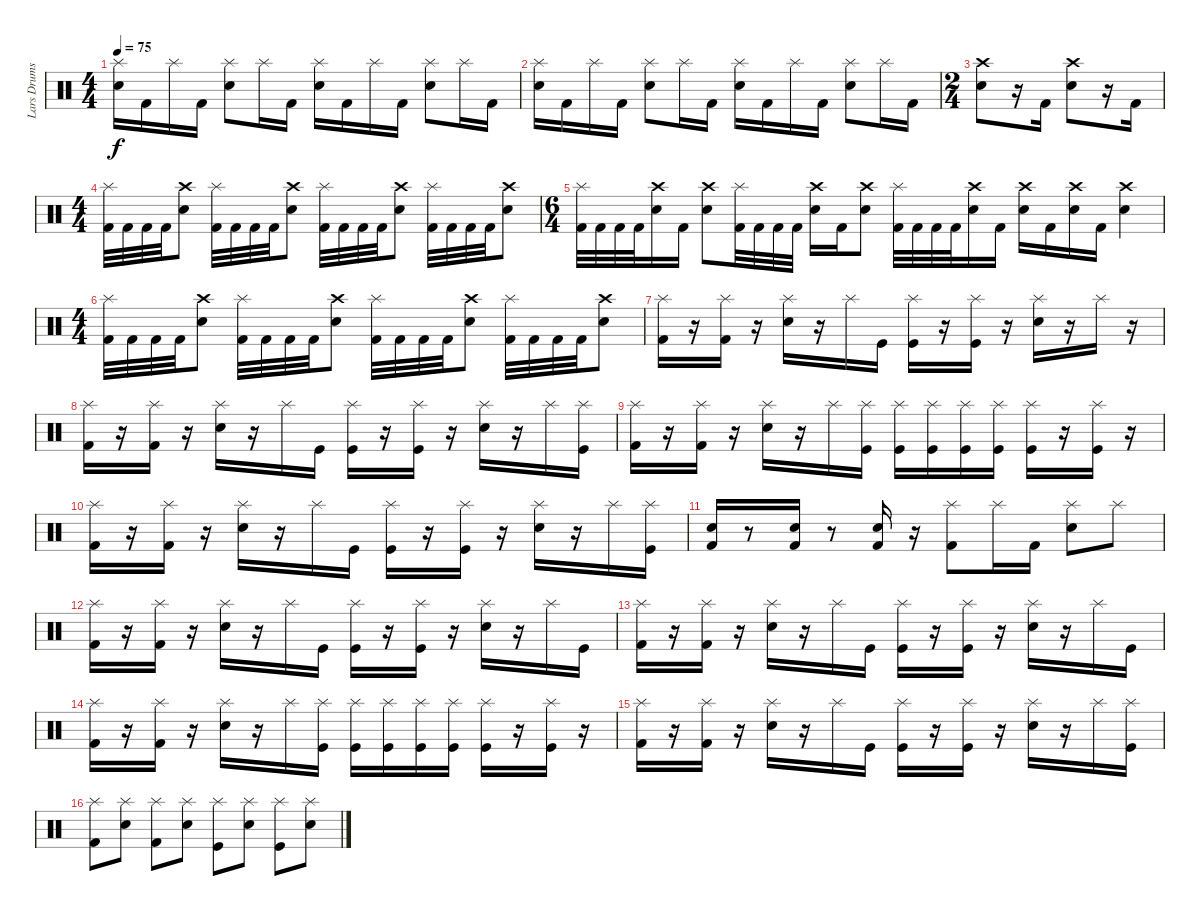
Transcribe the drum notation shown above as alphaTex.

\track ("Lars Drums" "Lars Drums") {instrument percussion}
\staff {score}
\articulation defaults
\ts (4 4)
\tempo 75
\clef neutral
\ks c
("Splash (hit)" "Snare (hit) 2").16{dy f} "Kick (hit) 2".16 "Splash (hit)".16 "Kick (hit) 2".16 ("Splash (hit)" "Snare (hit) 2").8 "Splash (hit)".16 "Kick (hit) 2".16 ("Splash (hit)" "Snare (hit) 2").16 "Kick (hit) 2".16 "Splash (hit)".16 "Kick (hit) 2".16 ("Splash (hit)" "Snare (hit) 2").8 "Splash (hit)".16 "Kick (hit) 2".16 |
("Splash (hit)" "Snare (hit) 2").16 "Kick (hit) 2".16 "Splash (hit)".16 "Kick (hit) 2".16 ("Splash (hit)" "Snare (hit) 2").8 "Splash (hit)".16 "Kick (hit) 2".16 ("Splash (hit)" "Snare (hit) 2").16 "Kick (hit) 2".16 "Splash (hit)".16 "Kick (hit) 2".16 ("Splash (hit)" "Snare (hit) 2").8 "Splash (hit)".16 "Kick (hit) 2".16 |
\ts (2 4)
("Crash high (hit)" "Snare (hit) 2").8 r.16 "Kick (hit) 2".16 ("Crash high (hit)" "Snare (hit) 2").8 r.16 "Kick (hit) 2".16 |
\ts (4 4)
("Splash (hit)" "Kick (hit) 2").32 "Kick (hit) 2".32 "Kick (hit) 2".32 "Kick (hit) 2".32 ("Crash high (hit)" "Snare (hit) 2").8 ("Splash (hit)" "Kick (hit) 2").32 "Kick (hit) 2".32 "Kick (hit) 2".32 "Kick (hit) 2".32 ("Crash high (hit)" "Snare (hit) 2").8 ("Splash (hit)" "Kick (hit) 2").32 "Kick (hit) 2".32 "Kick (hit) 2".32 "Kick (hit) 2".32 ("Crash high (hit)" "Snare (hit) 2").8 ("Splash (hit)" "Kick (hit) 2").32 "Kick (hit) 2".32 "Kick (hit) 2".32 "Kick (hit) 2".32 ("Crash high (hit)" "Snare (hit) 2").8 |
\ts (6 4)
("Splash (hit)" "Kick (hit) 2").32 "Kick (hit) 2".32 "Kick (hit) 2".32 "Kick (hit) 2".32 ("Crash high (hit)" "Snare (hit) 2").16 "Kick (hit) 2".16 ("Crash high (hit)" "Snare (hit) 2").8 ("Splash (hit)" "Kick (hit) 2").32 "Kick (hit) 2".32 "Kick (hit) 2".32 "Kick (hit) 2".32 ("Crash high (hit)" "Snare (hit) 2").16 "Kick (hit) 2".16 ("Crash high (hit)" "Snare (hit) 2").8 ("Splash (hit)" "Kick (hit) 2").32 "Kick (hit) 2".32 "Kick (hit) 2".32 "Kick (hit) 2".32 ("Crash high (hit)" "Snare (hit) 2").16 "Kick (hit) 2".16 ("Crash high (hit)" "Snare (hit) 2").16 "Kick (hit) 2".16 ("Crash high (hit)" "Snare (hit) 2").16 "Kick (hit) 2".16 ("Crash high (hit)" "Snare (hit) 2").4 |
\ts (4 4)
("Splash (hit)" "Kick (hit) 2").32 "Kick (hit) 2".32 "Kick (hit) 2".32 "Kick (hit) 2".32 ("Crash high (hit)" "Snare (hit) 2").8 ("Splash (hit)" "Kick (hit) 2").32 "Kick (hit) 2".32 "Kick (hit) 2".32 "Kick (hit) 2".32 ("Crash high (hit)" "Snare (hit) 2").8 ("Splash (hit)" "Kick (hit) 2").32 "Kick (hit) 2".32 "Kick (hit) 2".32 "Kick (hit) 2".32 ("Crash high (hit)" "Snare (hit) 2").8 ("Splash (hit)" "Kick (hit) 2").32 "Kick (hit) 2".32 "Kick (hit) 2".32 "Kick (hit) 2".32 ("Crash high (hit)" "Snare (hit) 2").8 |
("Splash (hit)" "Kick (hit) 2").16 r.16 ("Splash (hit)" "Kick (hit) 2").16 r.16 ("Splash (hit)" "Snare (hit) 2").16 r.16 "Splash (hit)".16 "Kick (hit)".16 ("Splash (hit)" "Kick (hit)").16 r.16 ("Splash (hit)" "Kick (hit)").16 r.16 ("Splash (hit)" "Snare (hit) 2").16 r.16 "Splash (hit)".16 r.16 |
("Splash (hit)" "Kick (hit) 2").16 r.16 ("Splash (hit)" "Kick (hit) 2").16 r.16 ("Splash (hit)" "Snare (hit) 2").16 r.16 "Splash (hit)".16 "Kick (hit)".16 ("Splash (hit)" "Kick (hit)").16 r.16 ("Splash (hit)" "Kick (hit)").16 r.16 ("Splash (hit)" "Snare (hit) 2").16 r.16 "Splash (hit)".16 ("Splash (hit)" "Kick (hit)").16 |
("Splash (hit)" "Kick (hit) 2").16 r.16 ("Splash (hit)" "Kick (hit) 2").16 r.16 ("Splash (hit)" "Snare (hit) 2").16 r.16 "Splash (hit)".16 ("Splash (hit)" "Kick (hit)").16 ("Splash (hit)" "Kick (hit)").16 ("Splash (hit)" "Kick (hit)").16 ("Splash (hit)" "Kick (hit)").16 ("Splash (hit)" "Kick (hit)").16 ("Splash (hit)" "Kick (hit)").16 r.16 ("Splash (hit)" "Kick (hit)").16 r.16 |
("Splash (hit)" "Kick (hit) 2").16 r.16 ("Splash (hit)" "Kick (hit) 2").16 r.16 ("Splash (hit)" "Snare (hit) 2").16 r.16 "Splash (hit)".16 "Kick (hit)".16 ("Splash (hit)" "Kick (hit)").16 r.16 ("Splash (hit)" "Kick (hit)").16 r.16 ("Splash (hit)" "Snare (hit) 2").16 r.16 "Splash (hit)".16 ("Splash (hit)" "Kick (hit)").16 |
("Kick (hit) 2" "Snare (hit) 2").16 r.8 ("Kick (hit) 2" "Snare (hit) 2").16 r.8 ("Kick (hit) 2" "Snare (hit) 2").16 r.16 ("Splash (hit)" "Kick (hit) 2").8 "Splash (hit)".16 "Kick (hit) 2".16 ("Splash (hit)" "Snare (hit) 2").8 "Splash (hit)".8 |
("Splash (hit)" "Kick (hit) 2").16 r.16 ("Splash (hit)" "Kick (hit) 2").16 r.16 ("Splash (hit)" "Snare (hit) 2").16 r.16 "Splash (hit)".16 "Kick (hit)".16 ("Splash (hit)" "Kick (hit)").16 r.16 ("Splash (hit)" "Kick (hit)").16 r.16 ("Splash (hit)" "Snare (hit) 2").16 r.16 "Splash (hit)".16 "Kick (hit)".16 |
("Splash (hit)" "Kick (hit) 2").16 r.16 ("Splash (hit)" "Kick (hit) 2").16 r.16 ("Splash (hit)" "Snare (hit) 2").16 r.16 "Splash (hit)".16 "Kick (hit)".16 ("Splash (hit)" "Kick (hit)").16 r.16 ("Splash (hit)" "Kick (hit)").16 r.16 ("Splash (hit)" "Snare (hit) 2").16 r.16 "Splash (hit)".16 "Kick (hit)".16 |
("Splash (hit)" "Kick (hit) 2").16 r.16 ("Splash (hit)" "Kick (hit) 2").16 r.16 ("Splash (hit)" "Snare (hit) 2").16 r.16 "Splash (hit)".16 ("Splash (hit)" "Kick (hit)").16 ("Splash (hit)" "Kick (hit)").16 ("Splash (hit)" "Kick (hit)").16 ("Splash (hit)" "Kick (hit)").16 ("Splash (hit)" "Kick (hit)").16 ("Splash (hit)" "Kick (hit)").16 r.16 ("Splash (hit)" "Kick (hit)").16 r.16 |
("Splash (hit)" "Kick (hit) 2").16 r.16 ("Splash (hit)" "Kick (hit) 2").16 r.16 ("Splash (hit)" "Snare (hit) 2").16 r.16 "Splash (hit)".16 "Kick (hit)".16 ("Splash (hit)" "Kick (hit)").16 r.16 ("Splash (hit)" "Kick (hit)").16 r.16 ("Splash (hit)" "Snare (hit) 2").16 r.16 "Splash (hit)".16 ("Splash (hit)" "Kick (hit)").16 |
("Splash (hit)" "Kick (hit) 2").8 ("Splash (hit)" "Snare (hit) 2").8 ("Splash (hit)" "Kick (hit) 2").8 ("Splash (hit)" "Snare (hit) 2").8 ("Splash (hit)" "Kick (hit)").8 ("Splash (hit)" "Snare (hit) 2").8 ("Splash (hit)" "Kick (hit)").8 ("Splash (hit)" "Snare (hit) 2").8
